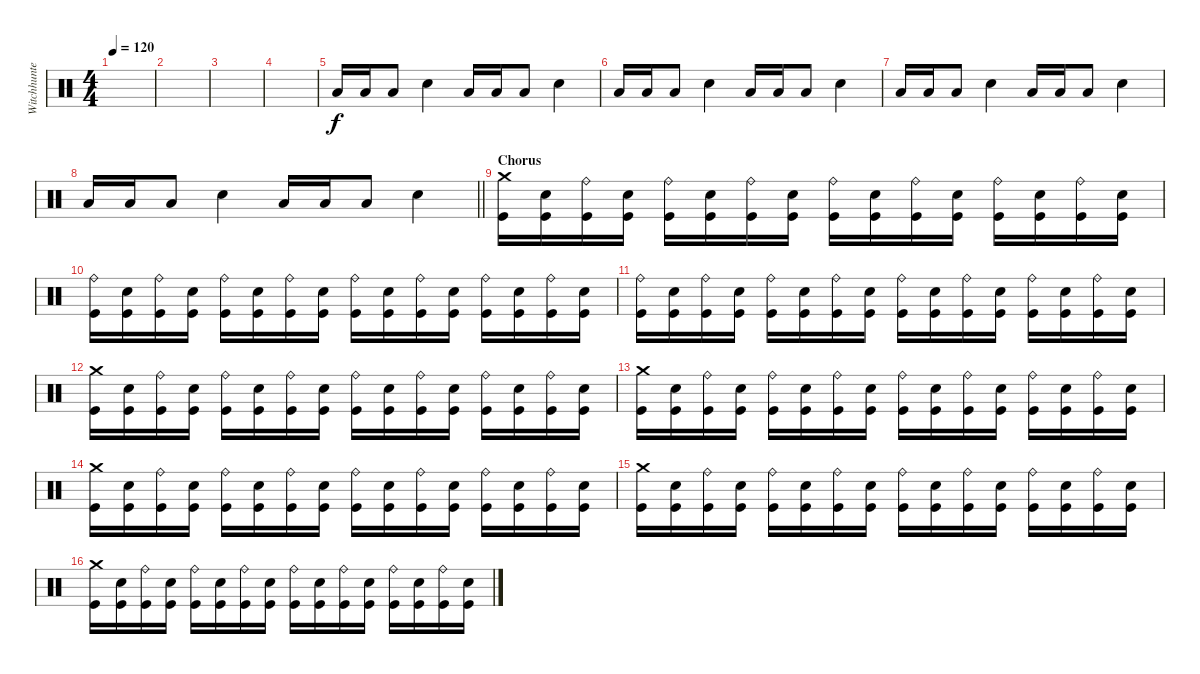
\track ("Witchhunter" "Witchhunte") {instrument percussion}
\staff {score}
\articulation defaults
\ts (4 4)
\tempo 120
\clef neutral
\ks c
|
|
|
|
"Low Tom (hit)".16 "Low Tom (hit)".16 "Low Tom (hit)".8 "Snare (hit) 2".4 "Low Tom (hit)".16 "Low Tom (hit)".16 "Low Tom (hit)".8 "Snare (hit) 2".4 |
"Low Tom (hit)".16 "Low Tom (hit)".16 "Low Tom (hit)".8 "Snare (hit) 2".4 "Low Tom (hit)".16 "Low Tom (hit)".16 "Low Tom (hit)".8 "Snare (hit) 2".4 |
"Low Tom (hit)".16 "Low Tom (hit)".16 "Low Tom (hit)".8 "Snare (hit) 2".4 "Low Tom (hit)".16 "Low Tom (hit)".16 "Low Tom (hit)".8 "Snare (hit) 2".4 |
\barLineRight lightlight "Low Tom (hit)".16 "Low Tom (hit)".16 "Low Tom (hit)".8 "Snare (hit) 2".4 "Low Tom (hit)".16 "Low Tom (hit)".16 "Low Tom (hit)".8 "Snare (hit) 2".4
|
\section ("" "Chorus")
("Crash medium (hit)" "Kick (hit)").16 ("Snare (hit) 2" "Kick (hit)").16 ("Ride (bell)" "Kick (hit)").16 ("Snare (hit) 2" "Kick (hit)").16 ("Ride (bell)" "Kick (hit)").16 ("Snare (hit) 2" "Kick (hit)").16 ("Ride (bell)" "Kick (hit)").16 ("Snare (hit) 2" "Kick (hit)").16 ("Ride (bell)" "Kick (hit)").16 ("Snare (hit) 2" "Kick (hit)").16 ("Ride (bell)" "Kick (hit)").16 ("Snare (hit) 2" "Kick (hit)").16 ("Ride (bell)" "Kick (hit)").16 ("Snare (hit) 2" "Kick (hit)").16 ("Ride (bell)" "Kick (hit)").16 ("Snare (hit) 2" "Kick (hit)").16 |
("Ride (bell)" "Kick (hit)").16 ("Snare (hit) 2" "Kick (hit)").16 ("Ride (bell)" "Kick (hit)").16 ("Snare (hit) 2" "Kick (hit)").16 ("Ride (bell)" "Kick (hit)").16 ("Snare (hit) 2" "Kick (hit)").16 ("Ride (bell)" "Kick (hit)").16 ("Snare (hit) 2" "Kick (hit)").16 ("Ride (bell)" "Kick (hit)").16 ("Snare (hit) 2" "Kick (hit)").16 ("Ride (bell)" "Kick (hit)").16 ("Snare (hit) 2" "Kick (hit)").16 ("Ride (bell)" "Kick (hit)").16 ("Snare (hit) 2" "Kick (hit)").16 ("Ride (bell)" "Kick (hit)").16 ("Snare (hit) 2" "Kick (hit)").16 |
("Ride (bell)" "Kick (hit)").16 ("Snare (hit) 2" "Kick (hit)").16 ("Ride (bell)" "Kick (hit)").16 ("Snare (hit) 2" "Kick (hit)").16 ("Ride (bell)" "Kick (hit)").16 ("Snare (hit) 2" "Kick (hit)").16 ("Ride (bell)" "Kick (hit)").16 ("Snare (hit) 2" "Kick (hit)").16 ("Ride (bell)" "Kick (hit)").16 ("Snare (hit) 2" "Kick (hit)").16 ("Ride (bell)" "Kick (hit)").16 ("Snare (hit) 2" "Kick (hit)").16 ("Ride (bell)" "Kick (hit)").16 ("Snare (hit) 2" "Kick (hit)").16 ("Ride (bell)" "Kick (hit)").16 ("Snare (hit) 2" "Kick (hit)").16 |
("Crash medium (hit)" "Kick (hit)").16 ("Snare (hit) 2" "Kick (hit)").16 ("Ride (bell)" "Kick (hit)").16 ("Snare (hit) 2" "Kick (hit)").16 ("Ride (bell)" "Kick (hit)").16 ("Snare (hit) 2" "Kick (hit)").16 ("Ride (bell)" "Kick (hit)").16 ("Snare (hit) 2" "Kick (hit)").16 ("Ride (bell)" "Kick (hit)").16 ("Snare (hit) 2" "Kick (hit)").16 ("Ride (bell)" "Kick (hit)").16 ("Snare (hit) 2" "Kick (hit)").16 ("Ride (bell)" "Kick (hit)").16 ("Snare (hit) 2" "Kick (hit)").16 ("Ride (bell)" "Kick (hit)").16 ("Snare (hit) 2" "Kick (hit)").16 |
("Crash medium (hit)" "Kick (hit)").16 ("Snare (hit) 2" "Kick (hit)").16 ("Ride (bell)" "Kick (hit)").16 ("Snare (hit) 2" "Kick (hit)").16 ("Ride (bell)" "Kick (hit)").16 ("Snare (hit) 2" "Kick (hit)").16 ("Ride (bell)" "Kick (hit)").16 ("Snare (hit) 2" "Kick (hit)").16 ("Ride (bell)" "Kick (hit)").16 ("Snare (hit) 2" "Kick (hit)").16 ("Ride (bell)" "Kick (hit)").16 ("Snare (hit) 2" "Kick (hit)").16 ("Ride (bell)" "Kick (hit)").16 ("Snare (hit) 2" "Kick (hit)").16 ("Ride (bell)" "Kick (hit)").16 ("Snare (hit) 2" "Kick (hit)").16 |
("Crash medium (hit)" "Kick (hit)").16 ("Snare (hit) 2" "Kick (hit)").16 ("Ride (bell)" "Kick (hit)").16 ("Snare (hit) 2" "Kick (hit)").16 ("Ride (bell)" "Kick (hit)").16 ("Snare (hit) 2" "Kick (hit)").16 ("Ride (bell)" "Kick (hit)").16 ("Snare (hit) 2" "Kick (hit)").16 ("Ride (bell)" "Kick (hit)").16 ("Snare (hit) 2" "Kick (hit)").16 ("Ride (bell)" "Kick (hit)").16 ("Snare (hit) 2" "Kick (hit)").16 ("Ride (bell)" "Kick (hit)").16 ("Snare (hit) 2" "Kick (hit)").16 ("Ride (bell)" "Kick (hit)").16 ("Snare (hit) 2" "Kick (hit)").16 |
("Crash medium (hit)" "Kick (hit)").16 ("Snare (hit) 2" "Kick (hit)").16 ("Ride (bell)" "Kick (hit)").16 ("Snare (hit) 2" "Kick (hit)").16 ("Ride (bell)" "Kick (hit)").16 ("Snare (hit) 2" "Kick (hit)").16 ("Ride (bell)" "Kick (hit)").16 ("Snare (hit) 2" "Kick (hit)").16 ("Ride (bell)" "Kick (hit)").16 ("Snare (hit) 2" "Kick (hit)").16 ("Ride (bell)" "Kick (hit)").16 ("Snare (hit) 2" "Kick (hit)").16 ("Ride (bell)" "Kick (hit)").16 ("Snare (hit) 2" "Kick (hit)").16 ("Ride (bell)" "Kick (hit)").16 ("Snare (hit) 2" "Kick (hit)").16 |
("Crash medium (hit)" "Kick (hit)").16 ("Snare (hit) 2" "Kick (hit)").16 ("Ride (bell)" "Kick (hit)").16 ("Snare (hit) 2" "Kick (hit)").16 ("Ride (bell)" "Kick (hit)").16 ("Snare (hit) 2" "Kick (hit)").16 ("Ride (bell)" "Kick (hit)").16 ("Snare (hit) 2" "Kick (hit)").16 ("Ride (bell)" "Kick (hit)").16 ("Snare (hit) 2" "Kick (hit)").16 ("Ride (bell)" "Kick (hit)").16 ("Snare (hit) 2" "Kick (hit)").16 ("Ride (bell)" "Kick (hit)").16 ("Snare (hit) 2" "Kick (hit)").16 ("Ride (bell)" "Kick (hit)").16 ("Snare (hit) 2" "Kick (hit)").16
